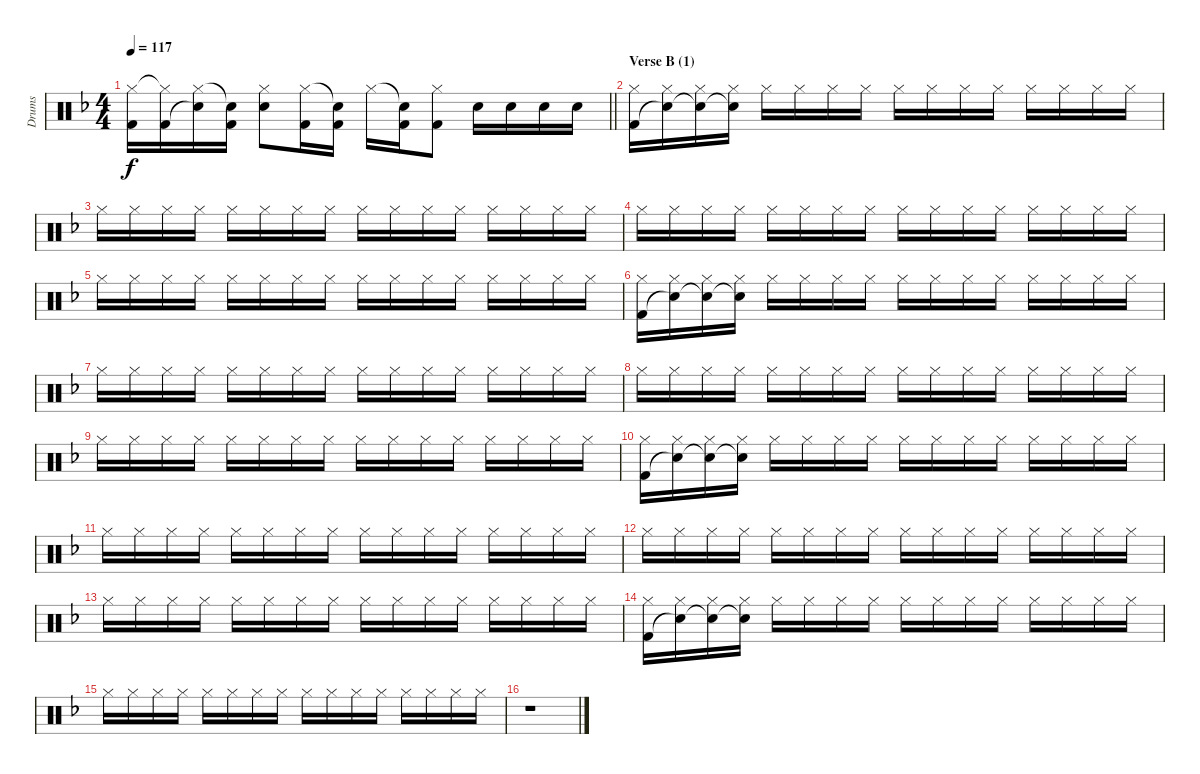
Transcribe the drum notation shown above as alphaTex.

\track ("Drums" "Drums") {instrument percussion}
\staff {score}
\articulation defaults
\ts (4 4)
\tempo 117
\clef neutral
\barLineRight lightlight
\ks dminor
("Hi-Hat (closed)" "Kick (hit) 2").16{dy f} ("Hi-Hat (closed)"{t} "Kick (hit) 2").16 ("Hi-Hat (closed)" "Snare (hit)"{t}).16 ("Snare (hit)"{t} "Kick (hit) 2").16 ("Hi-Hat (closed)" "Electric Snare (hit)").8 ("Hi-Hat (closed)" "Kick (hit) 2").16 ("Snare (hit)"{t} "Kick (hit) 2").16 "Hi-Hat (closed)".16 ("Snare (hit)"{t} "Kick (hit) 2").16 ("Hi-Hat (closed)" "Kick (hit) 2").8 "Electric Snare (hit)".16 "Electric Snare (hit)".16 "Electric Snare (hit)".16 "Electric Snare (hit)".16 |
\section ("" "Verse B (1)")
("Hi-Hat (closed)" "Kick (hit) 2").16 ("Hi-Hat (closed)" "Snare (hit)"{t}).16 ("Hi-Hat (closed)" "Snare (hit)"{t}).16 ("Hi-Hat (closed)" "Snare (hit)"{t}).16 "Hi-Hat (closed)".16 "Hi-Hat (closed)".16 "Hi-Hat (closed)".16 "Hi-Hat (closed)".16 "Hi-Hat (closed)".16 "Hi-Hat (closed)".16 "Hi-Hat (closed)".16 "Hi-Hat (closed)".16 "Hi-Hat (closed)".16 "Hi-Hat (closed)".16 "Hi-Hat (closed)".16 "Hi-Hat (closed)".16 |
"Hi-Hat (closed)".16 "Hi-Hat (closed)".16 "Hi-Hat (closed)".16 "Hi-Hat (closed)".16 "Hi-Hat (closed)".16 "Hi-Hat (closed)".16 "Hi-Hat (closed)".16 "Hi-Hat (closed)".16 "Hi-Hat (closed)".16 "Hi-Hat (closed)".16 "Hi-Hat (closed)".16 "Hi-Hat (closed)".16 "Hi-Hat (closed)".16 "Hi-Hat (closed)".16 "Hi-Hat (closed)".16 "Hi-Hat (closed)".16 |
"Hi-Hat (closed)".16 "Hi-Hat (closed)".16 "Hi-Hat (closed)".16 "Hi-Hat (closed)".16 "Hi-Hat (closed)".16 "Hi-Hat (closed)".16 "Hi-Hat (closed)".16 "Hi-Hat (closed)".16 "Hi-Hat (closed)".16 "Hi-Hat (closed)".16 "Hi-Hat (closed)".16 "Hi-Hat (closed)".16 "Hi-Hat (closed)".16 "Hi-Hat (closed)".16 "Hi-Hat (closed)".16 "Hi-Hat (closed)".16 |
"Hi-Hat (closed)".16 "Hi-Hat (closed)".16 "Hi-Hat (closed)".16 "Hi-Hat (closed)".16 "Hi-Hat (closed)".16 "Hi-Hat (closed)".16 "Hi-Hat (closed)".16 "Hi-Hat (closed)".16 "Hi-Hat (closed)".16 "Hi-Hat (closed)".16 "Hi-Hat (closed)".16 "Hi-Hat (closed)".16 "Hi-Hat (closed)".16 "Hi-Hat (closed)".16 "Hi-Hat (closed)".16 "Hi-Hat (closed)".16 |
("Hi-Hat (closed)" "Kick (hit) 2").16 ("Hi-Hat (closed)" "Snare (hit)"{t}).16 ("Hi-Hat (closed)" "Snare (hit)"{t}).16 ("Hi-Hat (closed)" "Snare (hit)"{t}).16 "Hi-Hat (closed)".16 "Hi-Hat (closed)".16 "Hi-Hat (closed)".16 "Hi-Hat (closed)".16 "Hi-Hat (closed)".16 "Hi-Hat (closed)".16 "Hi-Hat (closed)".16 "Hi-Hat (closed)".16 "Hi-Hat (closed)".16 "Hi-Hat (closed)".16 "Hi-Hat (closed)".16 "Hi-Hat (closed)".16 |
"Hi-Hat (closed)".16 "Hi-Hat (closed)".16 "Hi-Hat (closed)".16 "Hi-Hat (closed)".16 "Hi-Hat (closed)".16 "Hi-Hat (closed)".16 "Hi-Hat (closed)".16 "Hi-Hat (closed)".16 "Hi-Hat (closed)".16 "Hi-Hat (closed)".16 "Hi-Hat (closed)".16 "Hi-Hat (closed)".16 "Hi-Hat (closed)".16 "Hi-Hat (closed)".16 "Hi-Hat (closed)".16 "Hi-Hat (closed)".16 |
"Hi-Hat (closed)".16 "Hi-Hat (closed)".16 "Hi-Hat (closed)".16 "Hi-Hat (closed)".16 "Hi-Hat (closed)".16 "Hi-Hat (closed)".16 "Hi-Hat (closed)".16 "Hi-Hat (closed)".16 "Hi-Hat (closed)".16 "Hi-Hat (closed)".16 "Hi-Hat (closed)".16 "Hi-Hat (closed)".16 "Hi-Hat (closed)".16 "Hi-Hat (closed)".16 "Hi-Hat (closed)".16 "Hi-Hat (closed)".16 |
"Hi-Hat (closed)".16 "Hi-Hat (closed)".16 "Hi-Hat (closed)".16 "Hi-Hat (closed)".16 "Hi-Hat (closed)".16 "Hi-Hat (closed)".16 "Hi-Hat (closed)".16 "Hi-Hat (closed)".16 "Hi-Hat (closed)".16 "Hi-Hat (closed)".16 "Hi-Hat (closed)".16 "Hi-Hat (closed)".16 "Hi-Hat (closed)".16 "Hi-Hat (closed)".16 "Hi-Hat (closed)".16 "Hi-Hat (closed)".16 |
("Hi-Hat (closed)" "Kick (hit) 2").16 ("Hi-Hat (closed)" "Snare (hit)"{t}).16 ("Hi-Hat (closed)" "Snare (hit)"{t}).16 ("Hi-Hat (closed)" "Snare (hit)"{t}).16 "Hi-Hat (closed)".16 "Hi-Hat (closed)".16 "Hi-Hat (closed)".16 "Hi-Hat (closed)".16 "Hi-Hat (closed)".16 "Hi-Hat (closed)".16 "Hi-Hat (closed)".16 "Hi-Hat (closed)".16 "Hi-Hat (closed)".16 "Hi-Hat (closed)".16 "Hi-Hat (closed)".16 "Hi-Hat (closed)".16 |
"Hi-Hat (closed)".16 "Hi-Hat (closed)".16 "Hi-Hat (closed)".16 "Hi-Hat (closed)".16 "Hi-Hat (closed)".16 "Hi-Hat (closed)".16 "Hi-Hat (closed)".16 "Hi-Hat (closed)".16 "Hi-Hat (closed)".16 "Hi-Hat (closed)".16 "Hi-Hat (closed)".16 "Hi-Hat (closed)".16 "Hi-Hat (closed)".16 "Hi-Hat (closed)".16 "Hi-Hat (closed)".16 "Hi-Hat (closed)".16 |
"Hi-Hat (closed)".16 "Hi-Hat (closed)".16 "Hi-Hat (closed)".16 "Hi-Hat (closed)".16 "Hi-Hat (closed)".16 "Hi-Hat (closed)".16 "Hi-Hat (closed)".16 "Hi-Hat (closed)".16 "Hi-Hat (closed)".16 "Hi-Hat (closed)".16 "Hi-Hat (closed)".16 "Hi-Hat (closed)".16 "Hi-Hat (closed)".16 "Hi-Hat (closed)".16 "Hi-Hat (closed)".16 "Hi-Hat (closed)".16 |
"Hi-Hat (closed)".16 "Hi-Hat (closed)".16 "Hi-Hat (closed)".16 "Hi-Hat (closed)".16 "Hi-Hat (closed)".16 "Hi-Hat (closed)".16 "Hi-Hat (closed)".16 "Hi-Hat (closed)".16 "Hi-Hat (closed)".16 "Hi-Hat (closed)".16 "Hi-Hat (closed)".16 "Hi-Hat (closed)".16 "Hi-Hat (closed)".16 "Hi-Hat (closed)".16 "Hi-Hat (closed)".16 "Hi-Hat (closed)".16 |
("Hi-Hat (closed)" "Kick (hit) 2").16 ("Hi-Hat (closed)" "Snare (hit)"{t}).16 ("Hi-Hat (closed)" "Snare (hit)"{t}).16 ("Hi-Hat (closed)" "Snare (hit)"{t}).16 "Hi-Hat (closed)".16 "Hi-Hat (closed)".16 "Hi-Hat (closed)".16 "Hi-Hat (closed)".16 "Hi-Hat (closed)".16 "Hi-Hat (closed)".16 "Hi-Hat (closed)".16 "Hi-Hat (closed)".16 "Hi-Hat (closed)".16 "Hi-Hat (closed)".16 "Hi-Hat (closed)".16 "Hi-Hat (closed)".16 |
"Hi-Hat (closed)".16 "Hi-Hat (closed)".16 "Hi-Hat (closed)".16 "Hi-Hat (closed)".16 "Hi-Hat (closed)".16 "Hi-Hat (closed)".16 "Hi-Hat (closed)".16 "Hi-Hat (closed)".16 "Hi-Hat (closed)".16 "Hi-Hat (closed)".16 "Hi-Hat (closed)".16 "Hi-Hat (closed)".16 "Hi-Hat (closed)".16 "Hi-Hat (closed)".16 "Hi-Hat (closed)".16 "Hi-Hat (closed)".16 |
r.1
